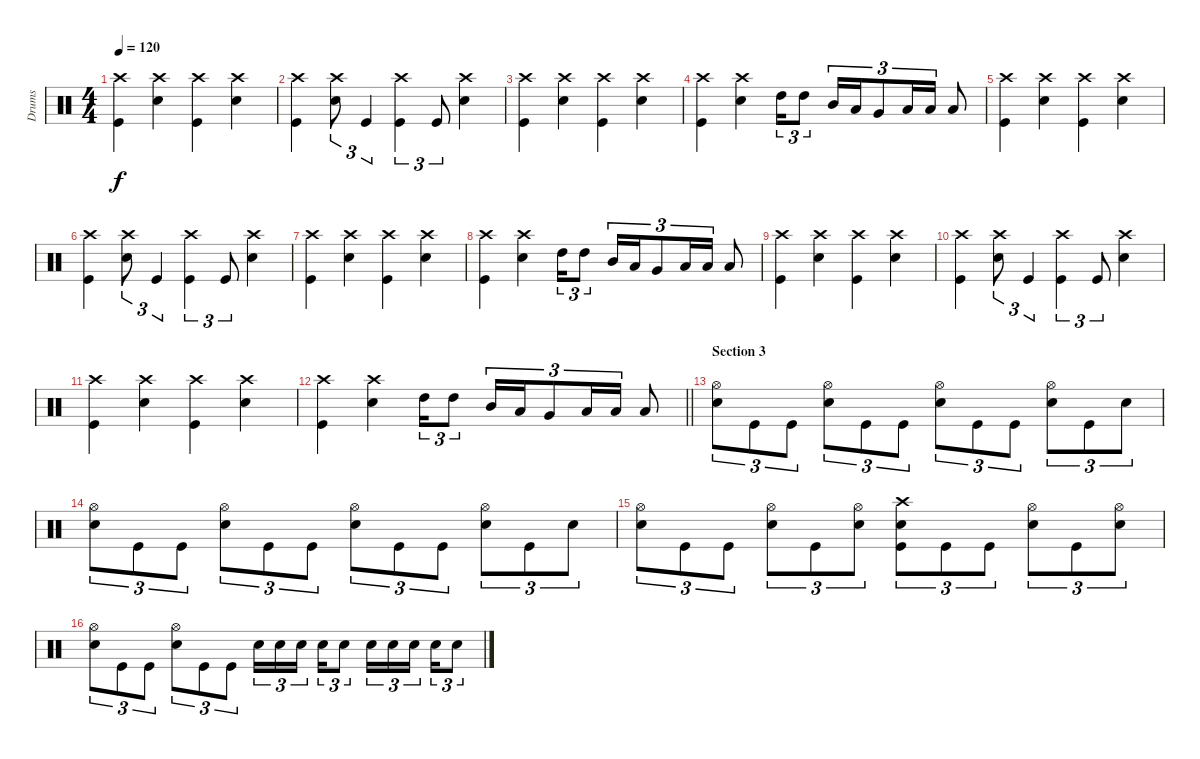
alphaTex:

\track ("Drums" "Drums") {instrument percussion}
\staff {score}
\articulation defaults
\ts (4 4)
\tempo 120
\clef neutral
\ks c
("Crash high (hit)" "Kick (hit)").4{dy f} ("Crash high (hit)" "Snare (hit) 2").4 ("Crash high (hit)" "Kick (hit)").4 ("Crash high (hit)" "Snare (hit) 2").4 |
("Crash high (hit)" "Kick (hit)").4 ("Crash high (hit)" "Snare (hit) 2").8{tu (3 2)} "Kick (hit)".4{tu (3 2)} ("Crash high (hit)" "Kick (hit)").4{tu (3 2)} "Kick (hit)".8{tu (3 2)} ("Crash high (hit)" "Snare (hit) 2").4 |
("Crash high (hit)" "Kick (hit)").4 ("Crash high (hit)" "Snare (hit) 2").4 ("Crash high (hit)" "Kick (hit)").4 ("Crash high (hit)" "Snare (hit) 2").4 |
("Crash high (hit)" "Kick (hit)").4 ("Crash high (hit)" "Snare (hit) 2").4 "High Tom (hit)".16{tu (3 2)} "High Tom (hit)".8{tu (3 2)} "Mid Tom (hit)".16{tu (3 2)} "Low Tom (hit)".16{tu (3 2)} "Very Low Tom (hit)".8{tu (3 2)} "Low Floor Tom (hit)".16{tu (3 2)} "Low Floor Tom (hit)".16{tu (3 2)} "Low Floor Tom (hit)".8 |
("Crash high (hit)" "Kick (hit)").4 ("Crash high (hit)" "Snare (hit) 2").4 ("Crash high (hit)" "Kick (hit)").4 ("Crash high (hit)" "Snare (hit) 2").4 |
("Crash high (hit)" "Kick (hit)").4 ("Crash high (hit)" "Snare (hit) 2").8{tu (3 2)} "Kick (hit)".4{tu (3 2)} ("Crash high (hit)" "Kick (hit)").4{tu (3 2)} "Kick (hit)".8{tu (3 2)} ("Crash high (hit)" "Snare (hit) 2").4 |
("Crash high (hit)" "Kick (hit)").4 ("Crash high (hit)" "Snare (hit) 2").4 ("Crash high (hit)" "Kick (hit)").4 ("Crash high (hit)" "Snare (hit) 2").4 |
("Crash high (hit)" "Kick (hit)").4 ("Crash high (hit)" "Snare (hit) 2").4 "High Tom (hit)".16{tu (3 2)} "High Tom (hit)".8{tu (3 2)} "Mid Tom (hit)".16{tu (3 2)} "Low Tom (hit)".16{tu (3 2)} "Very Low Tom (hit)".8{tu (3 2)} "Low Floor Tom (hit)".16{tu (3 2)} "Low Floor Tom (hit)".16{tu (3 2)} "Low Floor Tom (hit)".8 |
("Crash high (hit)" "Kick (hit)").4 ("Crash high (hit)" "Snare (hit) 2").4 ("Crash high (hit)" "Kick (hit)").4 ("Crash high (hit)" "Snare (hit) 2").4 |
("Crash high (hit)" "Kick (hit)").4 ("Crash high (hit)" "Snare (hit) 2").8{tu (3 2)} "Kick (hit)".4{tu (3 2)} ("Crash high (hit)" "Kick (hit)").4{tu (3 2)} "Kick (hit)".8{tu (3 2)} ("Crash high (hit)" "Snare (hit) 2").4 |
("Crash high (hit)" "Kick (hit)").4 ("Crash high (hit)" "Snare (hit) 2").4 ("Crash high (hit)" "Kick (hit)").4 ("Crash high (hit)" "Snare (hit) 2").4 |
\barLineRight lightlight
("Crash high (hit)" "Kick (hit)").4 ("Crash high (hit)" "Snare (hit) 2").4 "High Tom (hit)".16{tu (3 2)} "High Tom (hit)".8{tu (3 2)} "Mid Tom (hit)".16{tu (3 2)} "Low Tom (hit)".16{tu (3 2)} "Very Low Tom (hit)".8{tu (3 2)} "Low Floor Tom (hit)".16{tu (3 2)} "Low Floor Tom (hit)".16{tu (3 2)} "Low Floor Tom (hit)".8 |
\section ("" "Section 3")
("Hi-Hat (open)" "Snare (hit) 2").8{tu (3 2)} "Kick (hit)".8{tu (3 2)} "Kick (hit)".8{tu (3 2)} ("Hi-Hat (open)" "Snare (hit) 2").8{tu (3 2)} "Kick (hit)".8{tu (3 2)} "Kick (hit)".8{tu (3 2)} ("Hi-Hat (open)" "Snare (hit) 2").8{tu (3 2)} "Kick (hit)".8{tu (3 2)} "Kick (hit)".8{tu (3 2)} ("Hi-Hat (open)" "Snare (hit) 2").8{tu (3 2)} "Kick (hit)".8{tu (3 2)} "Snare (hit) 2".8{tu (3 2)} |
("Hi-Hat (open)" "Snare (hit) 2").8{tu (3 2)} "Kick (hit)".8{tu (3 2)} "Kick (hit)".8{tu (3 2)} ("Hi-Hat (open)" "Snare (hit) 2").8{tu (3 2)} "Kick (hit)".8{tu (3 2)} "Kick (hit)".8{tu (3 2)} ("Hi-Hat (open)" "Snare (hit) 2").8{tu (3 2)} "Kick (hit)".8{tu (3 2)} "Kick (hit)".8{tu (3 2)} ("Hi-Hat (open)" "Snare (hit) 2").8{tu (3 2)} "Kick (hit)".8{tu (3 2)} "Snare (hit) 2".8{tu (3 2)} |
("Hi-Hat (open)" "Snare (hit) 2").8{tu (3 2)} "Kick (hit)".8{tu (3 2)} "Kick (hit)".8{tu (3 2)} ("Hi-Hat (open)" "Snare (hit) 2").8{tu (3 2)} "Kick (hit)".8{tu (3 2)} ("Hi-Hat (open)" "Snare (hit) 2").8{tu (3 2)} ("Crash high (hit)" "Snare (hit) 2" "Kick (hit)").8{tu (3 2)} "Kick (hit)".8{tu (3 2)} "Kick (hit)".8{tu (3 2)} ("Hi-Hat (open)" "Snare (hit) 2").8{tu (3 2)} "Kick (hit)".8{tu (3 2)} ("Hi-Hat (open)" "Snare (hit) 2").8{tu (3 2)} |
("Hi-Hat (open)" "Snare (hit) 2").8{tu (3 2)} "Kick (hit)".8{tu (3 2)} "Kick (hit)".8{tu (3 2)} ("Hi-Hat (open)" "Snare (hit) 2").8{tu (3 2)} "Kick (hit)".8{tu (3 2)} "Kick (hit)".8{tu (3 2)} "Snare (hit) 2".16{tu (3 2)} "Snare (hit) 2".16{tu (3 2)} "Snare (hit) 2".16{tu (3 2) beam splitsecondary} "Snare (hit) 2".16{tu (3 2)} "Snare (hit) 2".8{tu (3 2)} "Snare (hit) 2".16{tu (3 2)} "Snare (hit) 2".16{tu (3 2)} "Snare (hit) 2".16{tu (3 2) beam splitsecondary} "Snare (hit) 2".16{tu (3 2)} "Snare (hit) 2".8{tu (3 2)}
